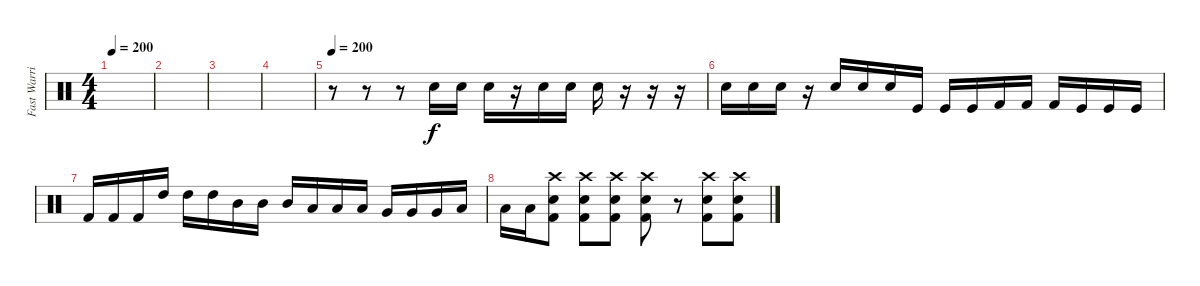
\track ("Fast Warrior" "Fast Warri") {instrument percussion}
\staff {score}
\articulation defaults
\ts (4 4)
\tempo 200
\clef neutral
\ks c
|
|
|
|
\tempo 200
r.8 r.8 r.8 "Electric Snare (hit)".16 "Electric Snare (hit)".16 "Electric Snare (hit)".16 r.16 "Electric Snare (hit)".16 "Electric Snare (hit)".16 "Electric Snare (hit)".16 r.16 r.16 r.16 |
"Electric Snare (hit)".16 "Electric Snare (hit)".16 "Electric Snare (hit)".16 r.16 "Electric Snare (hit)".16 "Electric Snare (hit)".16 "Electric Snare (hit)".16 "Kick (hit)".16 "Kick (hit)".16 "Kick (hit)".16 "Kick (hit) 2".16 "Kick (hit) 2".16 "Kick (hit) 2".16 "Kick (hit)".16 "Kick (hit)".16 "Kick (hit)".16 |
"Kick (hit) 2".16 "Kick (hit) 2".16 "Kick (hit) 2".16 "High Tom (hit)".16 "High Tom (hit)".16 "High Tom (hit)".16 "Mid Tom (hit)".16 "Mid Tom (hit)".16 "Mid Tom (hit)".16 "Low Tom (hit)".16 "Low Tom (hit)".16 "Low Tom (hit)".16 "Very Low Tom (hit)".16 "Very Low Tom (hit)".16 "Very Low Tom (hit)".16 "Low Floor Tom (hit)".16 |
"Low Floor Tom (hit)".16 "Low Floor Tom (hit)".16 ("Crash high (hit)" "Kick (hit) 2" "Electric Snare (hit)").8 ("Crash high (hit)" "Kick (hit) 2" "Electric Snare (hit)").8 ("Crash high (hit)" "Kick (hit) 2" "Electric Snare (hit)").8 ("Crash high (hit)" "Kick (hit) 2" "Electric Snare (hit)").8 r.8 ("Crash high (hit)" "Kick (hit) 2" "Electric Snare (hit)").8 ("Crash high (hit)" "Kick (hit) 2" "Electric Snare (hit)").8
